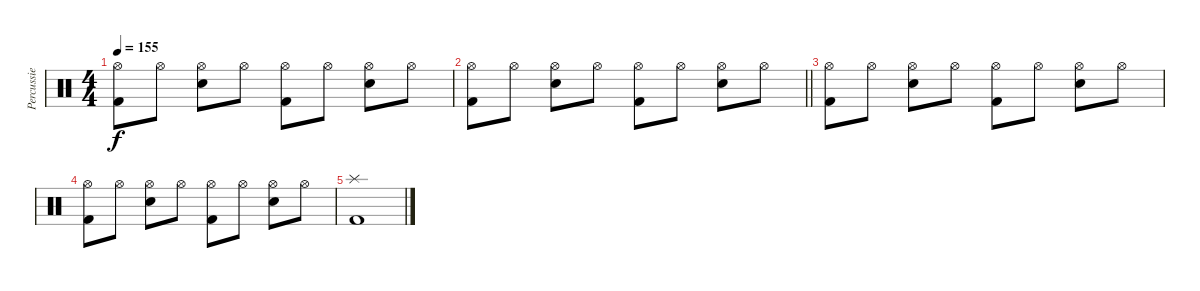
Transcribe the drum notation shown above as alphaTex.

\track ("Percussie" "Percussie") {instrument percussion}
\staff {score}
\articulation defaults
\ts (4 4)
\tempo 155
\clef neutral
\ks c
("Hi-Hat (open)" "Kick (hit) 2").8{dy f} "Hi-Hat (open)".8 ("Hi-Hat (open)" "Snare (hit) 2").8 "Hi-Hat (open)".8 ("Hi-Hat (open)" "Kick (hit) 2").8 "Hi-Hat (open)".8 ("Hi-Hat (open)" "Snare (hit) 2").8 "Hi-Hat (open)".8 |
\barLineRight lightlight
("Hi-Hat (open)" "Kick (hit) 2").8 "Hi-Hat (open)".8 ("Hi-Hat (open)" "Snare (hit) 2").8 "Hi-Hat (open)".8 ("Hi-Hat (open)" "Kick (hit) 2").8 "Hi-Hat (open)".8 ("Hi-Hat (open)" "Snare (hit) 2").8 "Hi-Hat (open)".8 |
("Hi-Hat (open)" "Kick (hit) 2").8 "Hi-Hat (open)".8 ("Hi-Hat (open)" "Snare (hit) 2").8 "Hi-Hat (open)".8 ("Hi-Hat (open)" "Kick (hit) 2").8 "Hi-Hat (open)".8 ("Hi-Hat (open)" "Snare (hit) 2").8 "Hi-Hat (open)".8 |
("Hi-Hat (open)" "Kick (hit) 2").8 "Hi-Hat (open)".8 ("Hi-Hat (open)" "Snare (hit) 2").8 "Hi-Hat (open)".8 ("Hi-Hat (open)" "Kick (hit) 2").8 "Hi-Hat (open)".8 ("Hi-Hat (open)" "Snare (hit) 2").8 "Hi-Hat (open)".8 |
("Splash (hit)" "Kick (hit) 2").1
